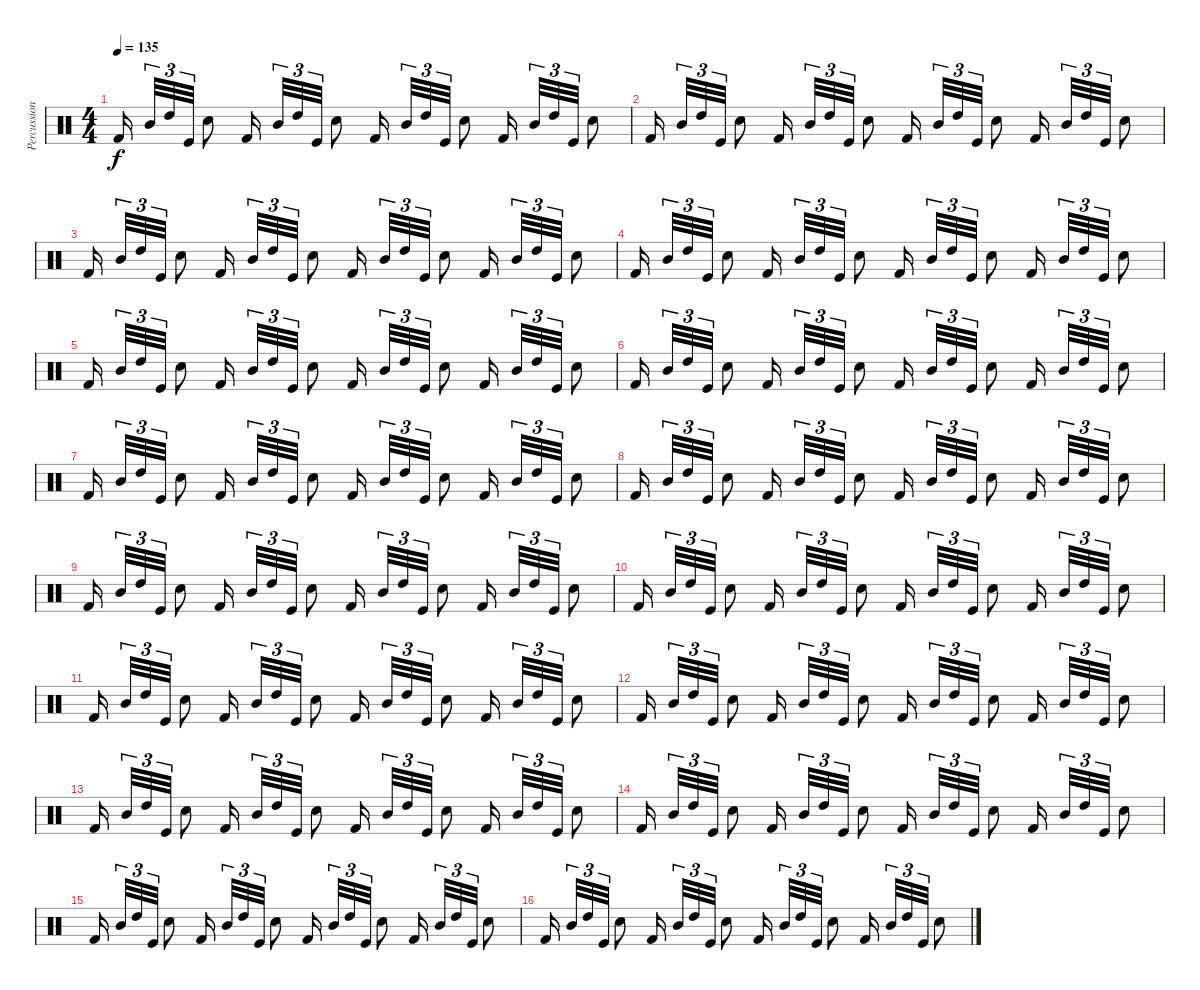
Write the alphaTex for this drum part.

\track ("Percussion" "Percussion") {instrument percussion}
\staff {score}
\articulation defaults
\ts (4 4)
\tempo 135
\clef neutral
\ks c "Kick (hit) 2".16{dy f} "Mid Tom (hit)".32{tu (3 2)} "High Tom (hit)".32{tu (3 2)} "Kick (hit)".32{tu (3 2)} "Snare (hit) 2".8 "Kick (hit) 2".16 "Mid Tom (hit)".32{tu (3 2)} "High Tom (hit)".32{tu (3 2)} "Kick (hit)".32{tu (3 2)} "Snare (hit) 2".8 "Kick (hit) 2".16 "Mid Tom (hit)".32{tu (3 2)} "High Tom (hit)".32{tu (3 2)} "Kick (hit)".32{tu (3 2)} "Snare (hit) 2".8 "Kick (hit) 2".16 "Mid Tom (hit)".32{tu (3 2)} "High Tom (hit)".32{tu (3 2)} "Kick (hit)".32{tu (3 2)} "Snare (hit) 2".8
|
"Kick (hit) 2".16 "Mid Tom (hit)".32{tu (3 2)} "High Tom (hit)".32{tu (3 2)} "Kick (hit)".32{tu (3 2)} "Snare (hit) 2".8 "Kick (hit) 2".16 "Mid Tom (hit)".32{tu (3 2)} "High Tom (hit)".32{tu (3 2)} "Kick (hit)".32{tu (3 2)} "Snare (hit) 2".8 "Kick (hit) 2".16 "Mid Tom (hit)".32{tu (3 2)} "High Tom (hit)".32{tu (3 2)} "Kick (hit)".32{tu (3 2)} "Snare (hit) 2".8 "Kick (hit) 2".16 "Mid Tom (hit)".32{tu (3 2)} "High Tom (hit)".32{tu (3 2)} "Kick (hit)".32{tu (3 2)} "Snare (hit) 2".8 |
"Kick (hit) 2".16 "Mid Tom (hit)".32{tu (3 2)} "High Tom (hit)".32{tu (3 2)} "Kick (hit)".32{tu (3 2)} "Snare (hit) 2".8 "Kick (hit) 2".16 "Mid Tom (hit)".32{tu (3 2)} "High Tom (hit)".32{tu (3 2)} "Kick (hit)".32{tu (3 2)} "Snare (hit) 2".8 "Kick (hit) 2".16 "Mid Tom (hit)".32{tu (3 2)} "High Tom (hit)".32{tu (3 2)} "Kick (hit)".32{tu (3 2)} "Snare (hit) 2".8 "Kick (hit) 2".16 "Mid Tom (hit)".32{tu (3 2)} "High Tom (hit)".32{tu (3 2)} "Kick (hit)".32{tu (3 2)} "Snare (hit) 2".8 |
"Kick (hit) 2".16 "Mid Tom (hit)".32{tu (3 2)} "High Tom (hit)".32{tu (3 2)} "Kick (hit)".32{tu (3 2)} "Snare (hit) 2".8 "Kick (hit) 2".16 "Mid Tom (hit)".32{tu (3 2)} "High Tom (hit)".32{tu (3 2)} "Kick (hit)".32{tu (3 2)} "Snare (hit) 2".8 "Kick (hit) 2".16 "Mid Tom (hit)".32{tu (3 2)} "High Tom (hit)".32{tu (3 2)} "Kick (hit)".32{tu (3 2)} "Snare (hit) 2".8 "Kick (hit) 2".16 "Mid Tom (hit)".32{tu (3 2)} "High Tom (hit)".32{tu (3 2)} "Kick (hit)".32{tu (3 2)} "Snare (hit) 2".8 |
"Kick (hit) 2".16 "Mid Tom (hit)".32{tu (3 2)} "High Tom (hit)".32{tu (3 2)} "Kick (hit)".32{tu (3 2)} "Snare (hit) 2".8 "Kick (hit) 2".16 "Mid Tom (hit)".32{tu (3 2)} "High Tom (hit)".32{tu (3 2)} "Kick (hit)".32{tu (3 2)} "Snare (hit) 2".8 "Kick (hit) 2".16 "Mid Tom (hit)".32{tu (3 2)} "High Tom (hit)".32{tu (3 2)} "Kick (hit)".32{tu (3 2)} "Snare (hit) 2".8 "Kick (hit) 2".16 "Mid Tom (hit)".32{tu (3 2)} "High Tom (hit)".32{tu (3 2)} "Kick (hit)".32{tu (3 2)} "Snare (hit) 2".8 |
"Kick (hit) 2".16 "Mid Tom (hit)".32{tu (3 2)} "High Tom (hit)".32{tu (3 2)} "Kick (hit)".32{tu (3 2)} "Snare (hit) 2".8 "Kick (hit) 2".16 "Mid Tom (hit)".32{tu (3 2)} "High Tom (hit)".32{tu (3 2)} "Kick (hit)".32{tu (3 2)} "Snare (hit) 2".8 "Kick (hit) 2".16 "Mid Tom (hit)".32{tu (3 2)} "High Tom (hit)".32{tu (3 2)} "Kick (hit)".32{tu (3 2)} "Snare (hit) 2".8 "Kick (hit) 2".16 "Mid Tom (hit)".32{tu (3 2)} "High Tom (hit)".32{tu (3 2)} "Kick (hit)".32{tu (3 2)} "Snare (hit) 2".8 |
"Kick (hit) 2".16 "Mid Tom (hit)".32{tu (3 2)} "High Tom (hit)".32{tu (3 2)} "Kick (hit)".32{tu (3 2)} "Snare (hit) 2".8 "Kick (hit) 2".16 "Mid Tom (hit)".32{tu (3 2)} "High Tom (hit)".32{tu (3 2)} "Kick (hit)".32{tu (3 2)} "Snare (hit) 2".8 "Kick (hit) 2".16 "Mid Tom (hit)".32{tu (3 2)} "High Tom (hit)".32{tu (3 2)} "Kick (hit)".32{tu (3 2)} "Snare (hit) 2".8 "Kick (hit) 2".16 "Mid Tom (hit)".32{tu (3 2)} "High Tom (hit)".32{tu (3 2)} "Kick (hit)".32{tu (3 2)} "Snare (hit) 2".8 |
"Kick (hit) 2".16 "Mid Tom (hit)".32{tu (3 2)} "High Tom (hit)".32{tu (3 2)} "Kick (hit)".32{tu (3 2)} "Snare (hit) 2".8 "Kick (hit) 2".16 "Mid Tom (hit)".32{tu (3 2)} "High Tom (hit)".32{tu (3 2)} "Kick (hit)".32{tu (3 2)} "Snare (hit) 2".8 "Kick (hit) 2".16 "Mid Tom (hit)".32{tu (3 2)} "High Tom (hit)".32{tu (3 2)} "Kick (hit)".32{tu (3 2)} "Snare (hit) 2".8 "Kick (hit) 2".16 "Mid Tom (hit)".32{tu (3 2)} "High Tom (hit)".32{tu (3 2)} "Kick (hit)".32{tu (3 2)} "Snare (hit) 2".8 |
"Kick (hit) 2".16 "Mid Tom (hit)".32{tu (3 2)} "High Tom (hit)".32{tu (3 2)} "Kick (hit)".32{tu (3 2)} "Snare (hit) 2".8 "Kick (hit) 2".16 "Mid Tom (hit)".32{tu (3 2)} "High Tom (hit)".32{tu (3 2)} "Kick (hit)".32{tu (3 2)} "Snare (hit) 2".8 "Kick (hit) 2".16 "Mid Tom (hit)".32{tu (3 2)} "High Tom (hit)".32{tu (3 2)} "Kick (hit)".32{tu (3 2)} "Snare (hit) 2".8 "Kick (hit) 2".16 "Mid Tom (hit)".32{tu (3 2)} "High Tom (hit)".32{tu (3 2)} "Kick (hit)".32{tu (3 2)} "Snare (hit) 2".8 |
"Kick (hit) 2".16 "Mid Tom (hit)".32{tu (3 2)} "High Tom (hit)".32{tu (3 2)} "Kick (hit)".32{tu (3 2)} "Snare (hit) 2".8 "Kick (hit) 2".16 "Mid Tom (hit)".32{tu (3 2)} "High Tom (hit)".32{tu (3 2)} "Kick (hit)".32{tu (3 2)} "Snare (hit) 2".8 "Kick (hit) 2".16 "Mid Tom (hit)".32{tu (3 2)} "High Tom (hit)".32{tu (3 2)} "Kick (hit)".32{tu (3 2)} "Snare (hit) 2".8 "Kick (hit) 2".16 "Mid Tom (hit)".32{tu (3 2)} "High Tom (hit)".32{tu (3 2)} "Kick (hit)".32{tu (3 2)} "Snare (hit) 2".8 |
"Kick (hit) 2".16 "Mid Tom (hit)".32{tu (3 2)} "High Tom (hit)".32{tu (3 2)} "Kick (hit)".32{tu (3 2)} "Snare (hit) 2".8 "Kick (hit) 2".16 "Mid Tom (hit)".32{tu (3 2)} "High Tom (hit)".32{tu (3 2)} "Kick (hit)".32{tu (3 2)} "Snare (hit) 2".8 "Kick (hit) 2".16 "Mid Tom (hit)".32{tu (3 2)} "High Tom (hit)".32{tu (3 2)} "Kick (hit)".32{tu (3 2)} "Snare (hit) 2".8 "Kick (hit) 2".16 "Mid Tom (hit)".32{tu (3 2)} "High Tom (hit)".32{tu (3 2)} "Kick (hit)".32{tu (3 2)} "Snare (hit) 2".8 |
"Kick (hit) 2".16 "Mid Tom (hit)".32{tu (3 2)} "High Tom (hit)".32{tu (3 2)} "Kick (hit)".32{tu (3 2)} "Snare (hit) 2".8 "Kick (hit) 2".16 "Mid Tom (hit)".32{tu (3 2)} "High Tom (hit)".32{tu (3 2)} "Kick (hit)".32{tu (3 2)} "Snare (hit) 2".8 "Kick (hit) 2".16 "Mid Tom (hit)".32{tu (3 2)} "High Tom (hit)".32{tu (3 2)} "Kick (hit)".32{tu (3 2)} "Snare (hit) 2".8 "Kick (hit) 2".16 "Mid Tom (hit)".32{tu (3 2)} "High Tom (hit)".32{tu (3 2)} "Kick (hit)".32{tu (3 2)} "Snare (hit) 2".8 |
"Kick (hit) 2".16 "Mid Tom (hit)".32{tu (3 2)} "High Tom (hit)".32{tu (3 2)} "Kick (hit)".32{tu (3 2)} "Snare (hit) 2".8 "Kick (hit) 2".16 "Mid Tom (hit)".32{tu (3 2)} "High Tom (hit)".32{tu (3 2)} "Kick (hit)".32{tu (3 2)} "Snare (hit) 2".8 "Kick (hit) 2".16 "Mid Tom (hit)".32{tu (3 2)} "High Tom (hit)".32{tu (3 2)} "Kick (hit)".32{tu (3 2)} "Snare (hit) 2".8 "Kick (hit) 2".16 "Mid Tom (hit)".32{tu (3 2)} "High Tom (hit)".32{tu (3 2)} "Kick (hit)".32{tu (3 2)} "Snare (hit) 2".8 |
"Kick (hit) 2".16 "Mid Tom (hit)".32{tu (3 2)} "High Tom (hit)".32{tu (3 2)} "Kick (hit)".32{tu (3 2)} "Snare (hit) 2".8 "Kick (hit) 2".16 "Mid Tom (hit)".32{tu (3 2)} "High Tom (hit)".32{tu (3 2)} "Kick (hit)".32{tu (3 2)} "Snare (hit) 2".8 "Kick (hit) 2".16 "Mid Tom (hit)".32{tu (3 2)} "High Tom (hit)".32{tu (3 2)} "Kick (hit)".32{tu (3 2)} "Snare (hit) 2".8 "Kick (hit) 2".16 "Mid Tom (hit)".32{tu (3 2)} "High Tom (hit)".32{tu (3 2)} "Kick (hit)".32{tu (3 2)} "Snare (hit) 2".8 |
"Kick (hit) 2".16 "Mid Tom (hit)".32{tu (3 2)} "High Tom (hit)".32{tu (3 2)} "Kick (hit)".32{tu (3 2)} "Snare (hit) 2".8 "Kick (hit) 2".16 "Mid Tom (hit)".32{tu (3 2)} "High Tom (hit)".32{tu (3 2)} "Kick (hit)".32{tu (3 2)} "Snare (hit) 2".8 "Kick (hit) 2".16 "Mid Tom (hit)".32{tu (3 2)} "High Tom (hit)".32{tu (3 2)} "Kick (hit)".32{tu (3 2)} "Snare (hit) 2".8 "Kick (hit) 2".16 "Mid Tom (hit)".32{tu (3 2)} "High Tom (hit)".32{tu (3 2)} "Kick (hit)".32{tu (3 2)} "Snare (hit) 2".8 |
"Kick (hit) 2".16 "Mid Tom (hit)".32{tu (3 2)} "High Tom (hit)".32{tu (3 2)} "Kick (hit)".32{tu (3 2)} "Snare (hit) 2".8 "Kick (hit) 2".16 "Mid Tom (hit)".32{tu (3 2)} "High Tom (hit)".32{tu (3 2)} "Kick (hit)".32{tu (3 2)} "Snare (hit) 2".8 "Kick (hit) 2".16 "Mid Tom (hit)".32{tu (3 2)} "High Tom (hit)".32{tu (3 2)} "Kick (hit)".32{tu (3 2)} "Snare (hit) 2".8 "Kick (hit) 2".16 "Mid Tom (hit)".32{tu (3 2)} "High Tom (hit)".32{tu (3 2)} "Kick (hit)".32{tu (3 2)} "Snare (hit) 2".8
